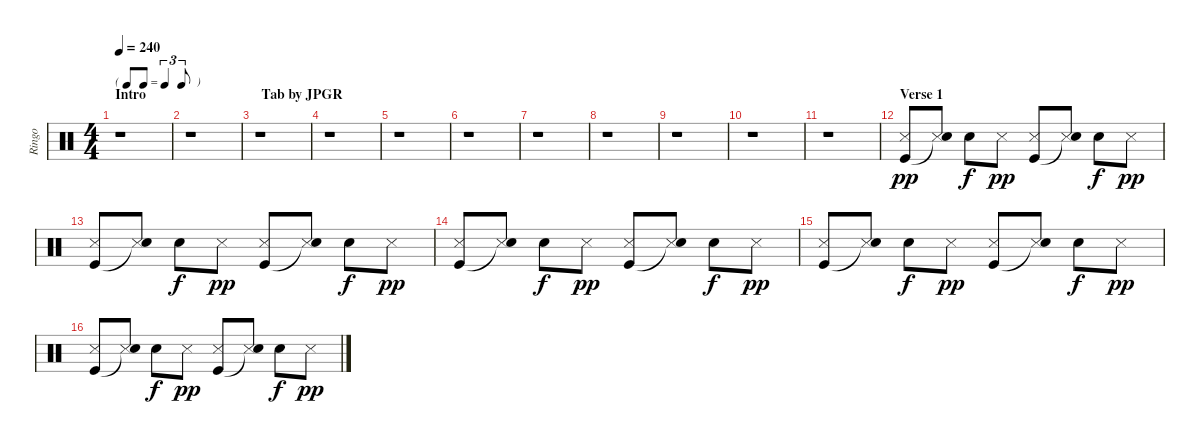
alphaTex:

\track ("Ringo" "Ringo") {instrument percussion}
\staff {score}
\articulation defaults
\ts (4 4)
\tf triplet8th
\section ("" "Intro                                 Tab by JPGR")
\tempo 240
\clef neutral
\ks c
r.1{dy pp} |
r.1 |
r.1 |
r.1 |
r.1 |
r.1 |
r.1 |
r.1 |
r.1 |
r.1 |
r.1 |
\section ("" "Verse 1")
("Snare (side stick) 3" "Kick (hit)").8 ("Snare (side stick) 3" "Snare (hit)"{t}).8 "Snare (hit) 2".8{dy f} "Snare (side stick) 3".8{dy pp} ("Snare (side stick) 3" "Kick (hit)").8 ("Snare (side stick) 3" "Snare (hit)"{t}).8 "Snare (hit) 2".8{dy f} "Snare (side stick) 3".8{dy pp} |
("Snare (side stick) 3" "Kick (hit)").8 ("Snare (side stick) 3" "Snare (hit)"{t}).8 "Snare (hit) 2".8{dy f} "Snare (side stick) 3".8{dy pp} ("Snare (side stick) 3" "Kick (hit)").8 ("Snare (side stick) 3" "Snare (hit)"{t}).8 "Snare (hit) 2".8{dy f} "Snare (side stick) 3".8{dy pp} |
("Snare (side stick) 3" "Kick (hit)").8 ("Snare (side stick) 3" "Snare (hit)"{t}).8 "Snare (hit) 2".8{dy f} "Snare (side stick) 3".8{dy pp} ("Snare (side stick) 3" "Kick (hit)").8 ("Snare (side stick) 3" "Snare (hit)"{t}).8 "Snare (hit) 2".8{dy f} "Snare (side stick) 3".8{dy pp} |
("Snare (side stick) 3" "Kick (hit)").8 ("Snare (side stick) 3" "Snare (hit)"{t}).8 "Snare (hit) 2".8{dy f} "Snare (side stick) 3".8{dy pp} ("Snare (side stick) 3" "Kick (hit)").8 ("Snare (side stick) 3" "Snare (hit)"{t}).8 "Snare (hit) 2".8{dy f} "Snare (side stick) 3".8{dy pp} |
("Snare (side stick) 3" "Kick (hit)").8 ("Snare (side stick) 3" "Snare (hit)"{t}).8 "Snare (hit) 2".8{dy f} "Snare (side stick) 3".8{dy pp} ("Snare (side stick) 3" "Kick (hit)").8 ("Snare (side stick) 3" "Snare (hit)"{t}).8 "Snare (hit) 2".8{dy f} "Snare (side stick) 3".8{dy pp}
